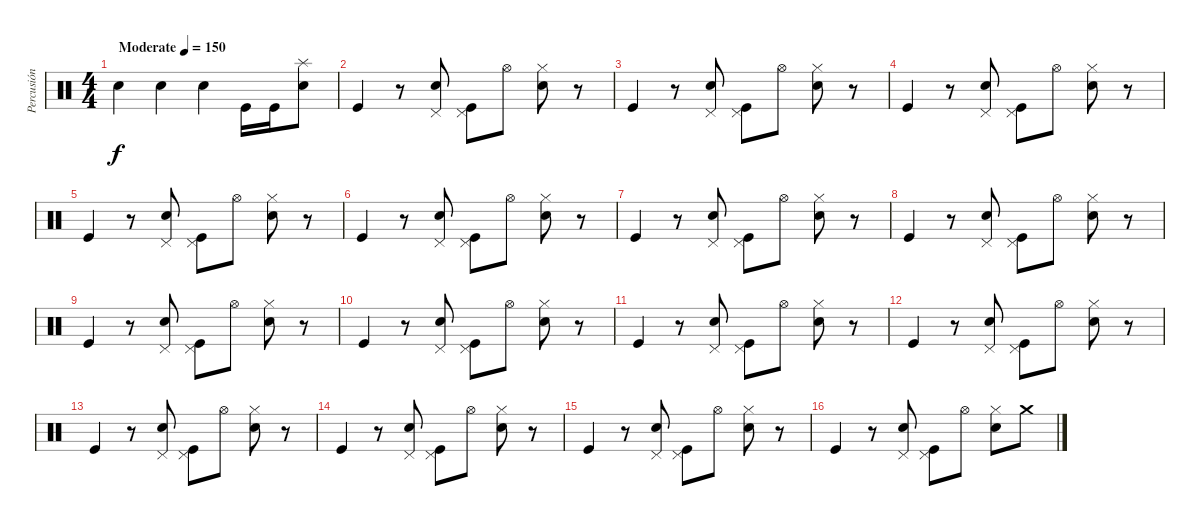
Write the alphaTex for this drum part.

\track ("Percusión" "Percusión") {instrument percussion}
\staff {score}
\articulation defaults
\ts (4 4)
\tempo (150 "Moderate")
\clef neutral
\ks c "Snare (hit) 2".4{dy f} "Snare (hit) 2".4 "Snare (hit) 2".4 "Kick (hit)".16 "Kick (hit)".16
("Snare (hit) 2" "Splash (hit)").8 |
"Kick (hit)".4 r.8 ("Snare (hit) 2" "Pedal Hi-Hat (hit)").8 ("Kick (hit)" "Pedal Hi-Hat (hit)").8 "Hi-Hat (open)".8 ("Snare (hit) 2" "Hi-Hat (closed)").8 r.8 |
"Kick (hit)".4 r.8 ("Snare (hit) 2" "Pedal Hi-Hat (hit)").8 ("Kick (hit)" "Pedal Hi-Hat (hit)").8 "Hi-Hat (open)".8 ("Snare (hit) 2" "Hi-Hat (closed)").8 r.8 |
"Kick (hit)".4 r.8 ("Snare (hit) 2" "Pedal Hi-Hat (hit)").8 ("Kick (hit)" "Pedal Hi-Hat (hit)").8 "Hi-Hat (open)".8 ("Snare (hit) 2" "Hi-Hat (closed)").8 r.8 |
"Kick (hit)".4 r.8 ("Snare (hit) 2" "Pedal Hi-Hat (hit)").8 ("Kick (hit)" "Pedal Hi-Hat (hit)").8 "Hi-Hat (open)".8 ("Snare (hit) 2" "Hi-Hat (closed)").8 r.8 |
"Kick (hit)".4 r.8 ("Snare (hit) 2" "Pedal Hi-Hat (hit)").8 ("Kick (hit)" "Pedal Hi-Hat (hit)").8 "Hi-Hat (open)".8 ("Snare (hit) 2" "Hi-Hat (closed)").8 r.8 |
"Kick (hit)".4 r.8 ("Snare (hit) 2" "Pedal Hi-Hat (hit)").8 ("Kick (hit)" "Pedal Hi-Hat (hit)").8 "Hi-Hat (open)".8 ("Snare (hit) 2" "Hi-Hat (closed)").8 r.8 |
"Kick (hit)".4 r.8 ("Snare (hit) 2" "Pedal Hi-Hat (hit)").8 ("Kick (hit)" "Pedal Hi-Hat (hit)").8 "Hi-Hat (open)".8 ("Snare (hit) 2" "Hi-Hat (closed)").8 r.8 |
"Kick (hit)".4 r.8 ("Snare (hit) 2" "Pedal Hi-Hat (hit)").8 ("Kick (hit)" "Pedal Hi-Hat (hit)").8 "Hi-Hat (open)".8 ("Snare (hit) 2" "Hi-Hat (closed)").8 r.8 |
"Kick (hit)".4 r.8 ("Snare (hit) 2" "Pedal Hi-Hat (hit)").8 ("Kick (hit)" "Pedal Hi-Hat (hit)").8 "Hi-Hat (open)".8 ("Snare (hit) 2" "Hi-Hat (closed)").8 r.8 |
"Kick (hit)".4 r.8 ("Snare (hit) 2" "Pedal Hi-Hat (hit)").8 ("Kick (hit)" "Pedal Hi-Hat (hit)").8 "Hi-Hat (open)".8 ("Snare (hit) 2" "Hi-Hat (closed)").8 r.8 |
"Kick (hit)".4 r.8 ("Snare (hit) 2" "Pedal Hi-Hat (hit)").8 ("Kick (hit)" "Pedal Hi-Hat (hit)").8 "Hi-Hat (open)".8 ("Snare (hit) 2" "Hi-Hat (closed)").8 r.8 |
"Kick (hit)".4 r.8 ("Snare (hit) 2" "Pedal Hi-Hat (hit)").8 ("Kick (hit)" "Pedal Hi-Hat (hit)").8 "Hi-Hat (open)".8 ("Snare (hit) 2" "Hi-Hat (closed)").8 r.8 |
"Kick (hit)".4 r.8 ("Snare (hit) 2" "Pedal Hi-Hat (hit)").8 ("Kick (hit)" "Pedal Hi-Hat (hit)").8 "Hi-Hat (open)".8 ("Snare (hit) 2" "Hi-Hat (closed)").8 r.8 |
"Kick (hit)".4 r.8 ("Snare (hit) 2" "Pedal Hi-Hat (hit)").8 ("Kick (hit)" "Pedal Hi-Hat (hit)").8 "Hi-Hat (open)".8 ("Snare (hit) 2" "Hi-Hat (closed)").8 r.8 |
"Kick (hit)".4 r.8 ("Snare (hit) 2" "Pedal Hi-Hat (hit)").8 ("Kick (hit)" "Pedal Hi-Hat (hit)").8 "Hi-Hat (open)".8 ("Snare (hit) 2" "Hi-Hat (closed)").8 "Crash medium (hit)".8
